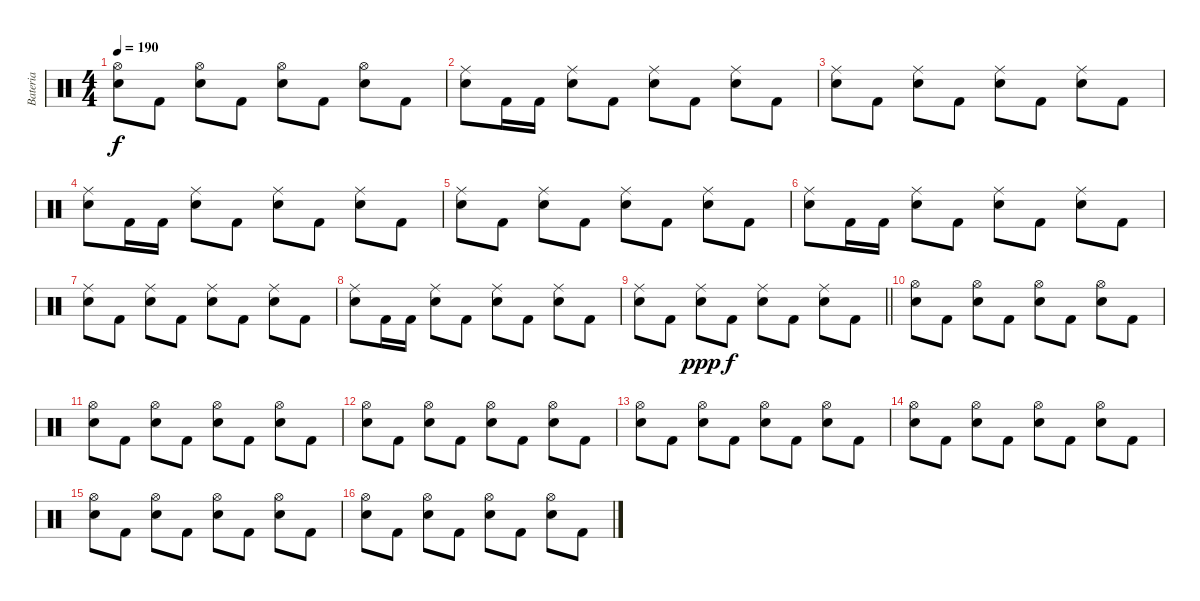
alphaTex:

\track ("Bateria" "Bateria") {instrument percussion}
\staff {score}
\articulation defaults
\ts (4 4)
\tempo 190
\clef neutral
\ks c
("Hi-Hat (open)" "Electric Snare (hit)").8{dy f} "Kick (hit) 2".8 ("Hi-Hat (open)" "Electric Snare (hit)").8 "Kick (hit) 2".8 ("Hi-Hat (open)" "Electric Snare (hit)").8 "Kick (hit) 2".8 ("Hi-Hat (open)" "Electric Snare (hit)").8 "Kick (hit) 2".8 |
("Ride (middle)" "Electric Snare (hit)").8 "Kick (hit) 2".16 "Kick (hit) 2".16 ("Ride (middle)" "Electric Snare (hit)").8 "Kick (hit) 2".8 ("Ride (middle)" "Electric Snare (hit)").8 "Kick (hit) 2".8 ("Ride (middle)" "Electric Snare (hit)").8 "Kick (hit) 2".8 |
("Ride (middle)" "Electric Snare (hit)").8 "Kick (hit) 2".8 ("Ride (middle)" "Electric Snare (hit)").8 "Kick (hit) 2".8 ("Ride (middle)" "Electric Snare (hit)").8 "Kick (hit) 2".8 ("Ride (middle)" "Electric Snare (hit)").8 "Kick (hit) 2".8 |
("Ride (middle)" "Electric Snare (hit)").8 "Kick (hit) 2".16 "Kick (hit) 2".16 ("Ride (middle)" "Electric Snare (hit)").8 "Kick (hit) 2".8 ("Ride (middle)" "Electric Snare (hit)").8 "Kick (hit) 2".8 ("Ride (middle)" "Electric Snare (hit)").8 "Kick (hit) 2".8 |
("Ride (middle)" "Electric Snare (hit)").8 "Kick (hit) 2".8 ("Ride (middle)" "Electric Snare (hit)").8 "Kick (hit) 2".8 ("Ride (middle)" "Electric Snare (hit)").8 "Kick (hit) 2".8 ("Ride (middle)" "Electric Snare (hit)").8 "Kick (hit) 2".8 |
("Ride (middle)" "Electric Snare (hit)").8 "Kick (hit) 2".16 "Kick (hit) 2".16 ("Ride (middle)" "Electric Snare (hit)").8 "Kick (hit) 2".8 ("Ride (middle)" "Electric Snare (hit)").8 "Kick (hit) 2".8 ("Ride (middle)" "Electric Snare (hit)").8 "Kick (hit) 2".8 |
("Ride (middle)" "Electric Snare (hit)").8 "Kick (hit) 2".8 ("Ride (middle)" "Electric Snare (hit)").8 "Kick (hit) 2".8 ("Ride (middle)" "Electric Snare (hit)").8 "Kick (hit) 2".8 ("Ride (middle)" "Electric Snare (hit)").8 "Kick (hit) 2".8 |
("Ride (middle)" "Electric Snare (hit)").8 "Kick (hit) 2".16 "Kick (hit) 2".16 ("Ride (middle)" "Electric Snare (hit)").8 "Kick (hit) 2".8 ("Ride (middle)" "Electric Snare (hit)").8 "Kick (hit) 2".8 ("Ride (middle)" "Electric Snare (hit)").8 "Kick (hit) 2".8 |
\barLineRight lightlight
("Ride (middle)" "Electric Snare (hit)").8 "Kick (hit) 2".8 ("Ride (middle)" "Electric Snare (hit)").8{dy ppp} "Kick (hit) 2".8{dy f} ("Ride (middle)" "Electric Snare (hit)").8 "Kick (hit) 2".8 ("Ride (middle)" "Electric Snare (hit)").8 "Kick (hit) 2".8 |
("Hi-Hat (open)" "Electric Snare (hit)").8 "Kick (hit) 2".8 ("Hi-Hat (open)" "Electric Snare (hit)").8 "Kick (hit) 2".8 ("Hi-Hat (open)" "Electric Snare (hit)").8 "Kick (hit) 2".8 ("Hi-Hat (open)" "Electric Snare (hit)").8 "Kick (hit) 2".8 |
("Hi-Hat (open)" "Electric Snare (hit)").8 "Kick (hit) 2".8 ("Hi-Hat (open)" "Electric Snare (hit)").8 "Kick (hit) 2".8 ("Hi-Hat (open)" "Electric Snare (hit)").8 "Kick (hit) 2".8 ("Hi-Hat (open)" "Electric Snare (hit)").8 "Kick (hit) 2".8 |
("Hi-Hat (open)" "Electric Snare (hit)").8 "Kick (hit) 2".8 ("Hi-Hat (open)" "Electric Snare (hit)").8 "Kick (hit) 2".8 ("Hi-Hat (open)" "Electric Snare (hit)").8 "Kick (hit) 2".8 ("Hi-Hat (open)" "Electric Snare (hit)").8 "Kick (hit) 2".8 |
("Hi-Hat (open)" "Electric Snare (hit)").8 "Kick (hit) 2".8 ("Hi-Hat (open)" "Electric Snare (hit)").8 "Kick (hit) 2".8 ("Hi-Hat (open)" "Electric Snare (hit)").8 "Kick (hit) 2".8 ("Hi-Hat (open)" "Electric Snare (hit)").8 "Kick (hit) 2".8 |
("Hi-Hat (open)" "Electric Snare (hit)").8 "Kick (hit) 2".8 ("Hi-Hat (open)" "Electric Snare (hit)").8 "Kick (hit) 2".8 ("Hi-Hat (open)" "Electric Snare (hit)").8 "Kick (hit) 2".8 ("Hi-Hat (open)" "Electric Snare (hit)").8 "Kick (hit) 2".8 |
("Hi-Hat (open)" "Electric Snare (hit)").8 "Kick (hit) 2".8 ("Hi-Hat (open)" "Electric Snare (hit)").8 "Kick (hit) 2".8 ("Hi-Hat (open)" "Electric Snare (hit)").8 "Kick (hit) 2".8 ("Hi-Hat (open)" "Electric Snare (hit)").8 "Kick (hit) 2".8 |
("Hi-Hat (open)" "Electric Snare (hit)").8 "Kick (hit) 2".8 ("Hi-Hat (open)" "Electric Snare (hit)").8 "Kick (hit) 2".8 ("Hi-Hat (open)" "Electric Snare (hit)").8 "Kick (hit) 2".8 ("Hi-Hat (open)" "Electric Snare (hit)").8 "Kick (hit) 2".8
